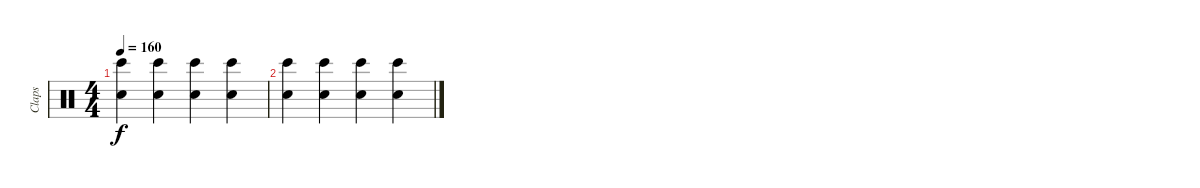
\track ("Claps" "Claps") {instrument percussion}
\staff {score}
\articulation defaults
\ts (4 4)
\tempo 160
\clef neutral
\ks c
("Hand Clap (hit)" "Bongo High (hit)").4{dy f} ("Hand Clap (hit)" "Bongo High (hit)").4 ("Hand Clap (hit)" "Bongo High (hit)").4 ("Hand Clap (hit)" "Bongo High (hit)").4 |
("Hand Clap (hit)" "Bongo High (hit)").4 ("Hand Clap (hit)" "Bongo High (hit)").4 ("Hand Clap (hit)" "Bongo High (hit)").4 ("Hand Clap (hit)" "Bongo High (hit)").4
